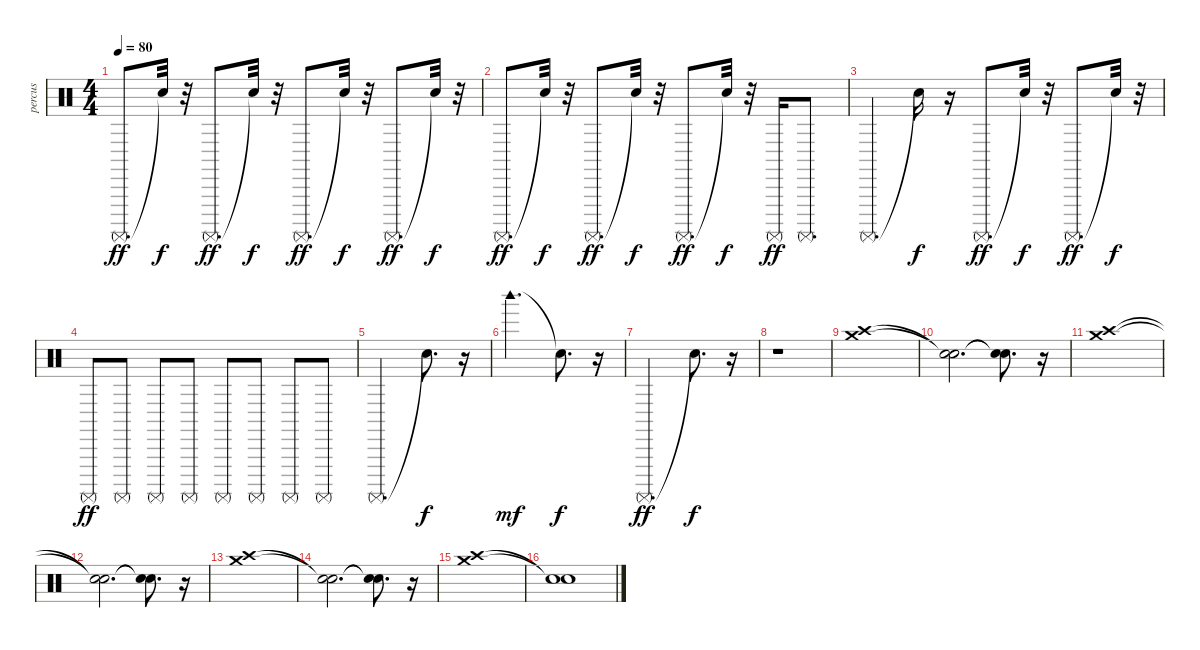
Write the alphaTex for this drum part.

\track ("percus" "percus") {instrument percussion}
\staff {score}
\articulation defaults
\ts (4 4)
\tempo 80
\clef neutral
\ks c "Surdo (mute)".8{d dy ff} "Snare (hit)"{t}.32{dy f}
r.32 "Surdo (mute)".8{d dy ff} "Snare (hit)"{t}.32{dy f} r.32 "Surdo (mute)".8{d dy ff} "Snare (hit)"{t}.32{dy f} r.32 "Surdo (mute)".8{d dy ff} "Snare (hit)"{t}.32{dy f} r.32 |
"Surdo (mute)".8{d dy ff} "Snare (hit)"{t}.32{dy f} r.32 "Surdo (mute)".8{d dy ff} "Snare (hit)"{t}.32{dy f} r.32 "Surdo (mute)".8{d dy ff} "Snare (hit)"{t}.32{dy f} r.32 "Surdo (mute)".16{dy ff} "Surdo (mute)".8{d} |
"Surdo (mute)".4{d} "Snare (hit)"{t}.16{dy f} r.16 "Surdo (mute)".8{d dy ff} "Snare (hit)"{t}.32{dy f} r.32 "Surdo (mute)".8{d dy ff} "Snare (hit)"{t}.32{dy f} r.32 |
"Surdo (mute)".8{dy ff} "Surdo (mute)".8 "Surdo (mute)".8 "Surdo (mute)".8 "Surdo (mute)".8 "Surdo (mute)".8 "Surdo (mute)".8 "Surdo (mute)".8 |
"Surdo (mute)".2{d} "Snare (hit)"{t}.8{d dy f} r.16 |
"Woodblock high (hit)".2{d dy mf} "Snare (hit)"{t}.8{d dy f} r.16 |
"Surdo (mute)".2{d dy ff} "Snare (hit)"{t}.8{d dy f} r.16 |
r.1 |
("Crash high (hit)" "Crash medium (hit)").1 |
("Snare (hit)"{t} "Snare (hit)"{t}).2{d} ("Snare (hit)"{t} "Snare (hit)"{t}).8{d} r.16 |
("Crash high (hit)" "Crash medium (hit)").1 |
("Snare (hit)"{t} "Snare (hit)"{t}).2{d} ("Snare (hit)"{t} "Snare (hit)"{t}).8{d} r.16 |
("Crash high (hit)" "Crash medium (hit)").1 |
("Snare (hit)"{t} "Snare (hit)"{t}).2{d} ("Snare (hit)"{t} "Snare (hit)"{t}).8{d} r.16 |
("Crash high (hit)" "Crash medium (hit)").1 |
("Snare (hit)"{t} "Snare (hit)"{t}).1
